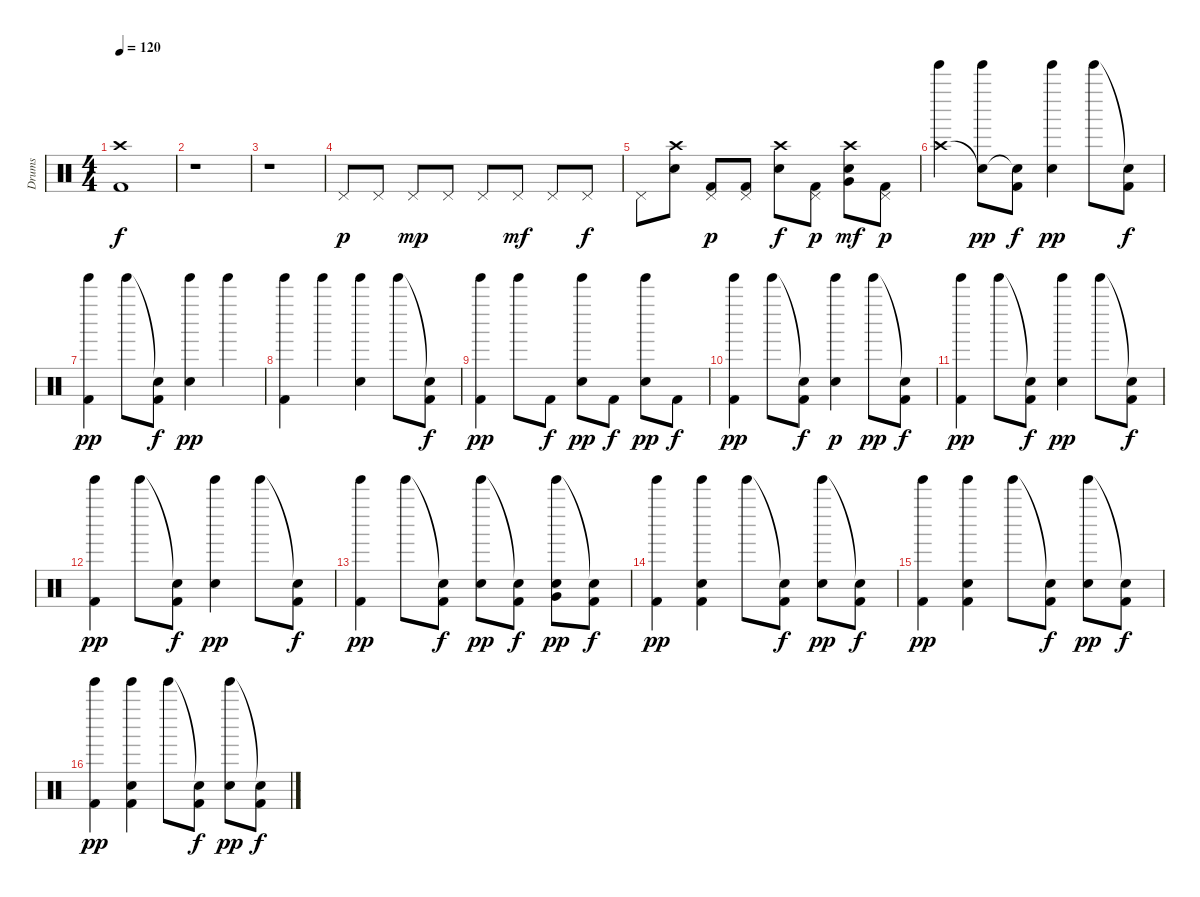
\track ("Drums" "Drums") {instrument percussion}
\staff {score}
\articulation defaults
\ts (4 4)
\tempo 120
\clef neutral
\ks c
("Crash high (hit)" "Kick (hit) 2").1{dy f} |
r.1 |
r.1 |
"Pedal Hi-Hat (hit)".8{dy p} "Pedal Hi-Hat (hit)".8 "Pedal Hi-Hat (hit)".8{dy mp} "Pedal Hi-Hat (hit)".8 "Pedal Hi-Hat (hit)".8 "Pedal Hi-Hat (hit)".8{dy mf} "Pedal Hi-Hat (hit)".8 "Pedal Hi-Hat (hit)".8{dy f} |
"Pedal Hi-Hat (hit)".8 ("Crash high (hit)" "Electric Snare (hit)").8 ("Pedal Hi-Hat (hit)" "Kick (hit) 2").8{dy p} ("Pedal Hi-Hat (hit)" "Kick (hit) 2").8 ("Crash high (hit)" "Electric Snare (hit)").8{dy f} ("Pedal Hi-Hat (hit)" "Kick (hit) 2").8{dy p} ("Crash high (hit)" "Very Low Tom (hit)" "Electric Snare (hit)").8{dy mf} ("Pedal Hi-Hat (hit)" "Kick (hit) 2").8{dy p} |
("Crash high (hit)" "Tinkle Bell (hit)").4 ("Snare (hit)"{t} "Tinkle Bell (hit)").8{dy pp} ("Snare (hit)"{t} "Kick (hit) 2").8{dy f} ("Tinkle Bell (hit)" "Electric Snare (hit)").4{dy pp} "Tinkle Bell (hit)".8 ("Snare (hit)"{t} "Kick (hit) 2").8{dy f} |
("Tinkle Bell (hit)" "Kick (hit) 2").4{dy pp} "Tinkle Bell (hit)".8 ("Snare (hit)"{t} "Kick (hit) 2").8{dy f} ("Tinkle Bell (hit)" "Electric Snare (hit)").4{dy pp} "Tinkle Bell (hit)".4 |
("Tinkle Bell (hit)" "Kick (hit) 2").4 "Tinkle Bell (hit)".4 ("Tinkle Bell (hit)" "Electric Snare (hit)").4 "Tinkle Bell (hit)".8 ("Snare (hit)"{t} "Kick (hit) 2").8{dy f} |
("Tinkle Bell (hit)" "Kick (hit) 2").4{dy pp} "Tinkle Bell (hit)".8 "Kick (hit) 2".8{dy f} ("Tinkle Bell (hit)" "Electric Snare (hit)").8{dy pp} "Kick (hit) 2".8{dy f} ("Tinkle Bell (hit)" "Electric Snare (hit)").8{dy pp} "Kick (hit) 2".8{dy f} |
("Tinkle Bell (hit)" "Kick (hit) 2").4{dy pp} "Tinkle Bell (hit)".8 ("Snare (hit)"{t} "Kick (hit) 2").8{dy f} ("Tinkle Bell (hit)" "Electric Snare (hit)").4{dy p} "Tinkle Bell (hit)".8{dy pp} ("Snare (hit)"{t} "Kick (hit) 2").8{dy f} |
("Tinkle Bell (hit)" "Kick (hit) 2").4{dy pp} "Tinkle Bell (hit)".8 ("Snare (hit)"{t} "Kick (hit) 2").8{dy f} ("Tinkle Bell (hit)" "Electric Snare (hit)").4{dy pp} "Tinkle Bell (hit)".8 ("Snare (hit)"{t} "Kick (hit) 2").8{dy f} |
("Tinkle Bell (hit)" "Kick (hit) 2").4{dy pp} "Tinkle Bell (hit)".8 ("Snare (hit)"{t} "Kick (hit) 2").8{dy f} ("Tinkle Bell (hit)" "Electric Snare (hit)").4{dy pp} "Tinkle Bell (hit)".8 ("Snare (hit)"{t} "Kick (hit) 2").8{dy f} |
("Tinkle Bell (hit)" "Kick (hit) 2").4{dy pp} "Tinkle Bell (hit)".8 ("Snare (hit)"{t} "Kick (hit) 2").8{dy f} ("Tinkle Bell (hit)" "Electric Snare (hit)").8{dy pp} ("Snare (hit)"{t} "Kick (hit) 2").8{dy f} ("Tinkle Bell (hit)" "Electric Snare (hit)" "Very Low Tom (hit)").8{dy pp} ("Snare (hit)"{t} "Kick (hit) 2").8{dy f} |
("Tinkle Bell (hit)" "Kick (hit) 2").4{dy pp} ("Tinkle Bell (hit)" "Electric Snare (hit)" "Kick (hit) 2").4 "Tinkle Bell (hit)".8 ("Snare (hit)"{t} "Kick (hit) 2").8{dy f} ("Tinkle Bell (hit)" "Electric Snare (hit)").8{dy pp} ("Snare (hit)"{t} "Kick (hit) 2").8{dy f} |
("Tinkle Bell (hit)" "Kick (hit) 2").4{dy pp} ("Tinkle Bell (hit)" "Electric Snare (hit)" "Kick (hit) 2").4 "Tinkle Bell (hit)".8 ("Snare (hit)"{t} "Kick (hit) 2").8{dy f} ("Tinkle Bell (hit)" "Electric Snare (hit)").8{dy pp} ("Snare (hit)"{t} "Kick (hit) 2").8{dy f} |
("Tinkle Bell (hit)" "Kick (hit) 2").4{dy pp} ("Tinkle Bell (hit)" "Electric Snare (hit)" "Kick (hit) 2").4 "Tinkle Bell (hit)".8 ("Snare (hit)"{t} "Kick (hit) 2").8{dy f} ("Tinkle Bell (hit)" "Electric Snare (hit)").8{dy pp} ("Snare (hit)"{t} "Kick (hit) 2").8{dy f}
